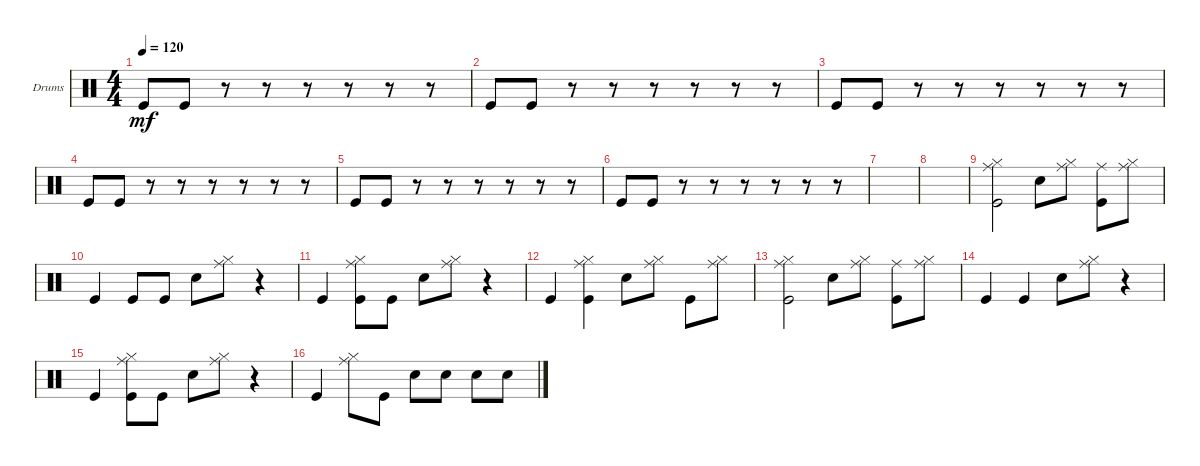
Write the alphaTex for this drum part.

\defaultSystemsLayout 4
\bracketExtendMode groupsimilarinstruments
\firstSystemTrackNameOrientation horizontal
\otherSystemsTrackNameOrientation horizontal
\track ("Drumkit" "Drums") {instrument percussion}
\staff {score}
\articulation defaults
\ts (4 4)
\tempo 120
\clef neutral
\scale
0.333333
\ks c "Kick (hit)".8{dy mf} "Kick (hit)".8
r.8 r.8 r.8 r.8 r.8 r.8 |
\scale
0.333333 "Kick (hit)".8 "Kick (hit)".8 r.8 r.8 r.8 r.8 r.8 r.8 |
\scale
0.333333 "Kick (hit)".8 "Kick (hit)".8 r.8 r.8 r.8 r.8 r.8 r.8 |
\scale
0.333333 "Kick (hit)".8 "Kick (hit)".8 r.8 r.8 r.8 r.8 r.8 r.8 |
\scale
0.333333 "Kick (hit)".8 "Kick (hit)".8 r.8 r.8 r.8 r.8 r.8 r.8 |
\scale
0.333333 "Kick (hit)".8 "Kick (hit)".8 r.8 r.8 r.8 r.8 r.8 r.8 |
\scale
0.333333 |
\scale
0.333333 |
\scale
0.333333 ("Kick (hit)" "Ride (middle)" "Hi-Hat (closed)").2 "Snare (hit) 2".8 ("Hi-Hat (closed)" "Ride (middle)").8 ("Kick (hit)" "Ride (middle)").8 ("Hi-Hat (closed)" "Ride (middle)").8 |
\scale
0.333333 "Kick (hit)".4 "Kick (hit)".8 "Kick (hit)".8 "Snare (hit) 2".8 ("Hi-Hat (closed)" "Ride (middle)").8 r.4 |
\scale
0.333333 "Kick (hit)".4 ("Kick (hit)" "Ride (middle)" "Hi-Hat (closed)").8 "Kick (hit)".8 "Snare (hit) 2".8 ("Hi-Hat (closed)" "Ride (middle)").8 r.4 |
\scale
0.333333 "Kick (hit)".4 ("Kick (hit)" "Ride (middle)" "Hi-Hat (closed)").4 "Snare (hit) 2".8 ("Ride (middle)" "Hi-Hat (closed)").8 "Kick (hit)".8 ("Ride (middle)" "Hi-Hat (closed)").8 |
\scale
0.333333 ("Kick (hit)" "Ride (middle)" "Hi-Hat (closed)").2 "Snare (hit) 2".8 ("Hi-Hat (closed)" "Ride (middle)").8 ("Kick (hit)" "Ride (middle)").8 ("Hi-Hat (closed)" "Ride (middle)").8 |
\scale
0.333333 "Kick (hit)".4 "Kick (hit)".4 "Snare (hit) 2".8 ("Hi-Hat (closed)" "Ride (middle)").8 r.4 |
\scale
0.333333 "Kick (hit)".4 ("Kick (hit)" "Ride (middle)" "Hi-Hat (closed)").8 "Kick (hit)".8 "Snare (hit) 2".8 ("Hi-Hat (closed)" "Ride (middle)").8 r.4 |
\scale
0.333333 "Kick (hit)".4 ("Ride (middle)" "Hi-Hat (closed)").8 "Kick (hit)".8 "Snare (hit) 2".8 "Snare (hit) 2".8 "Snare (hit) 2".8 "Snare (hit) 2".8
